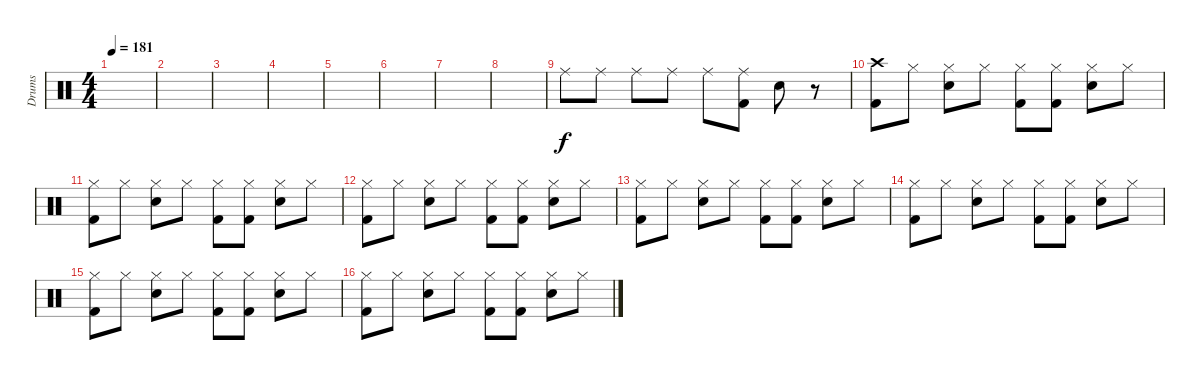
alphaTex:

\track ("Drums" "Drums") {instrument percussion}
\staff {score}
\articulation defaults
\ts (4 4)
\tempo 181
\clef neutral
\ks c
|
|
|
|
|
|
|
|
"Ride (middle)".8 "Ride (middle)".8 "Ride (middle)".8 "Ride (middle)".8 "Ride (middle)".8 ("Ride (middle)" "Kick (hit) 2").8 "Snare (hit) 2".8 r.8 |
("Crash high (hit)" "Kick (hit) 2").8 "Hi-Hat (closed)".8 ("Hi-Hat (closed)" "Snare (hit) 2").8 "Hi-Hat (closed)".8 ("Hi-Hat (closed)" "Kick (hit) 2").8 ("Hi-Hat (closed)" "Kick (hit) 2").8 ("Hi-Hat (closed)" "Snare (hit) 2").8 "Hi-Hat (closed)".8 |
("Hi-Hat (closed)" "Kick (hit) 2").8 "Hi-Hat (closed)".8 ("Hi-Hat (closed)" "Snare (hit) 2").8 "Hi-Hat (closed)".8 ("Hi-Hat (closed)" "Kick (hit) 2").8 ("Hi-Hat (closed)" "Kick (hit) 2").8 ("Hi-Hat (closed)" "Snare (hit) 2").8 "Hi-Hat (closed)".8 |
("Hi-Hat (closed)" "Kick (hit) 2").8 "Hi-Hat (closed)".8 ("Hi-Hat (closed)" "Snare (hit) 2").8 "Hi-Hat (closed)".8 ("Hi-Hat (closed)" "Kick (hit) 2").8 ("Hi-Hat (closed)" "Kick (hit) 2").8 ("Hi-Hat (closed)" "Snare (hit) 2").8 "Hi-Hat (closed)".8 |
("Hi-Hat (closed)" "Kick (hit) 2").8 "Hi-Hat (closed)".8 ("Hi-Hat (closed)" "Snare (hit) 2").8 "Hi-Hat (closed)".8 ("Hi-Hat (closed)" "Kick (hit) 2").8 ("Hi-Hat (closed)" "Kick (hit) 2").8 ("Hi-Hat (closed)" "Snare (hit) 2").8 "Hi-Hat (closed)".8 |
("Hi-Hat (closed)" "Kick (hit) 2").8 "Hi-Hat (closed)".8 ("Hi-Hat (closed)" "Snare (hit) 2").8 "Hi-Hat (closed)".8 ("Hi-Hat (closed)" "Kick (hit) 2").8 ("Hi-Hat (closed)" "Kick (hit) 2").8 ("Hi-Hat (closed)" "Snare (hit) 2").8 "Hi-Hat (closed)".8 |
("Hi-Hat (closed)" "Kick (hit) 2").8 "Hi-Hat (closed)".8 ("Hi-Hat (closed)" "Snare (hit) 2").8 "Hi-Hat (closed)".8 ("Hi-Hat (closed)" "Kick (hit) 2").8 ("Hi-Hat (closed)" "Kick (hit) 2").8 ("Hi-Hat (closed)" "Snare (hit) 2").8 "Hi-Hat (closed)".8 |
("Hi-Hat (closed)" "Kick (hit) 2").8 "Hi-Hat (closed)".8 ("Hi-Hat (closed)" "Snare (hit) 2").8 "Hi-Hat (closed)".8 ("Hi-Hat (closed)" "Kick (hit) 2").8 ("Hi-Hat (closed)" "Kick (hit) 2").8 ("Hi-Hat (closed)" "Snare (hit) 2").8 "Hi-Hat (closed)".8
